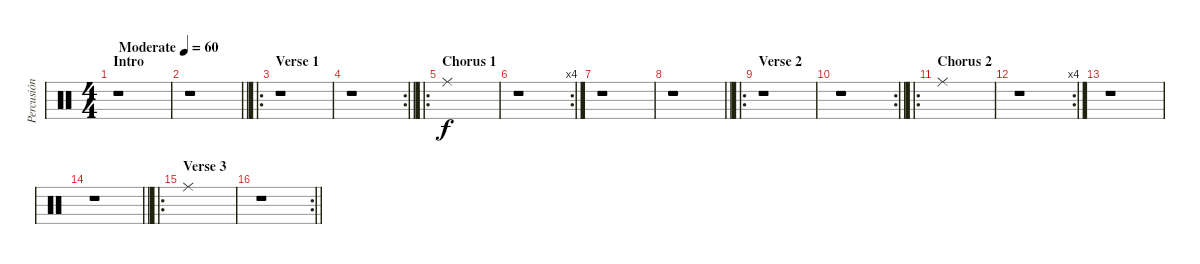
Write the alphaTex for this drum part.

\track ("Percusión" "Percusión") {instrument percussion}
\staff {score}
\articulation defaults
\ts (4 4)
\section ("" "Intro")
\tempo (60 "Moderate")
\clef neutral
\ks c
r.1{dy f} |
\barLineRight lightlight
r.1 |
\ro
\section ("" "Verse 1")
r.1 |
\rc 2
\barLineRight lightlight
r.1 |
\ro
\section ("" "Chorus 1")
"Ride (middle)".1 |
\rc 4
r.1 |
r.1 |
\barLineRight lightlight
r.1 |
\ro
\section ("" "Verse 2")
r.1 |
\rc 2
\barLineRight lightlight
r.1 |
\ro
\section ("" "Chorus 2")
"Ride (middle)".1 |
\rc 4
r.1 |
r.1 |
\barLineRight lightlight
r.1 |
\ro
\section ("" "Verse 3")
"Ride (middle)".1 |
\rc 2
\barLineRight lightlight
r.1
